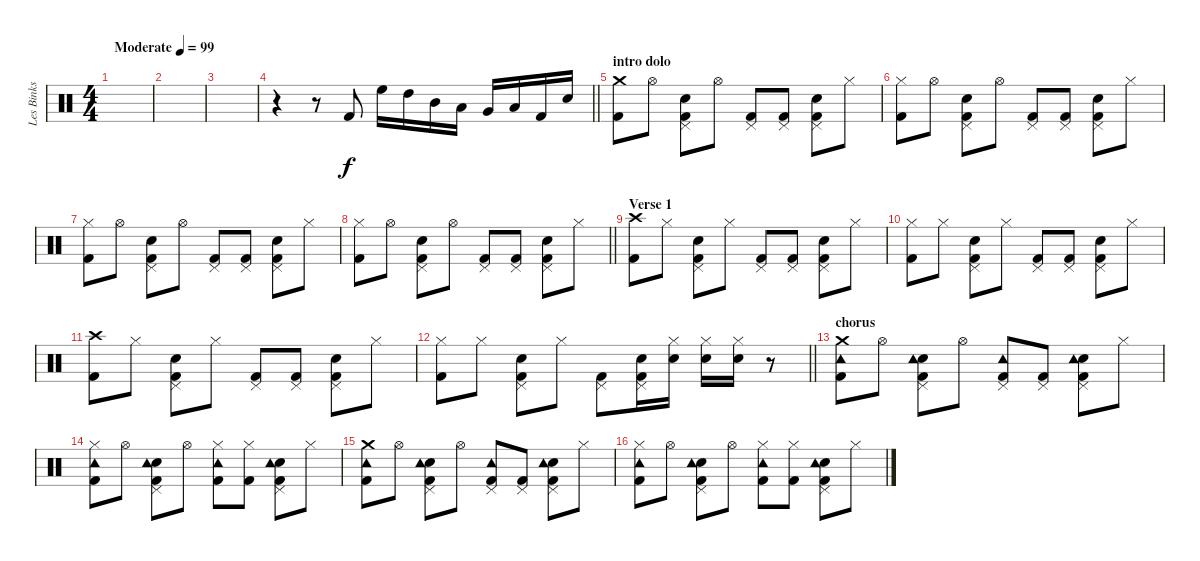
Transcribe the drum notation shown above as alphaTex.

\track ("Les Binks" "Les Binks") {instrument percussion}
\staff {score}
\articulation defaults
\ts (4 4)
\tempo (99 "Moderate")
\clef neutral
\ks c
|
|
|
\barLineRight lightlight
r.4 r.8 "Kick (hit) 2".8 "High Floor Tom (hit)".16 "High Tom (hit)".16 "Mid Tom (hit)".16 "Low Tom (hit)".16 "Very Low Tom (hit)".16 "Low Floor Tom (hit)".16 "Kick (hit) 2".16 "Snare (hit) 2".16 |
\section ("" "intro dolo")
("Crash medium (hit)" "Kick (hit) 2").8 "Hi-Hat (open)".8 ("Pedal Hi-Hat (hit)" "Snare (hit) 2" "Kick (hit) 2").8 "Hi-Hat (open)".8 ("Pedal Hi-Hat (hit)" "Kick (hit) 2").8 ("Pedal Hi-Hat (hit)" "Kick (hit) 2").8 ("Pedal Hi-Hat (hit)" "Snare (hit) 2" "Kick (hit) 2").8 "Hi-Hat (closed)".8 |
("Hi-Hat (closed)" "Kick (hit) 2").8 "Hi-Hat (open)".8 ("Pedal Hi-Hat (hit)" "Snare (hit) 2" "Kick (hit) 2").8 "Hi-Hat (open)".8 ("Pedal Hi-Hat (hit)" "Kick (hit) 2").8 ("Pedal Hi-Hat (hit)" "Kick (hit) 2").8 ("Pedal Hi-Hat (hit)" "Snare (hit) 2" "Kick (hit) 2").8 "Hi-Hat (closed)".8 |
("Hi-Hat (closed)" "Kick (hit) 2").8 "Hi-Hat (open)".8 ("Pedal Hi-Hat (hit)" "Snare (hit) 2" "Kick (hit) 2").8 "Hi-Hat (open)".8 ("Pedal Hi-Hat (hit)" "Kick (hit) 2").8 ("Pedal Hi-Hat (hit)" "Kick (hit) 2").8 ("Pedal Hi-Hat (hit)" "Snare (hit) 2" "Kick (hit) 2").8 "Hi-Hat (closed)".8 |
\barLineRight lightlight
("Hi-Hat (closed)" "Kick (hit) 2").8 "Hi-Hat (open)".8 ("Pedal Hi-Hat (hit)" "Snare (hit) 2" "Kick (hit) 2").8 "Hi-Hat (open)".8 ("Pedal Hi-Hat (hit)" "Kick (hit) 2").8 ("Pedal Hi-Hat (hit)" "Kick (hit) 2").8 ("Pedal Hi-Hat (hit)" "Snare (hit) 2" "Kick (hit) 2").8 "Hi-Hat (closed)".8 |
\section ("" "Verse 1")
("Crash high (hit)" "Kick (hit) 2").8 "Hi-Hat (closed)".8 ("Pedal Hi-Hat (hit)" "Snare (hit) 2" "Kick (hit) 2").8 "Hi-Hat (closed)".8 ("Pedal Hi-Hat (hit)" "Kick (hit) 2").8 ("Pedal Hi-Hat (hit)" "Kick (hit) 2").8 ("Pedal Hi-Hat (hit)" "Snare (hit) 2" "Kick (hit) 2").8 "Hi-Hat (closed)".8 |
("Hi-Hat (closed)" "Kick (hit) 2").8 "Hi-Hat (closed)".8 ("Pedal Hi-Hat (hit)" "Snare (hit) 2" "Kick (hit) 2").8 "Hi-Hat (closed)".8 ("Pedal Hi-Hat (hit)" "Kick (hit) 2").8 ("Pedal Hi-Hat (hit)" "Kick (hit) 2").8 ("Pedal Hi-Hat (hit)" "Snare (hit) 2" "Kick (hit) 2").8 "Hi-Hat (closed)".8 |
("Crash high (hit)" "Kick (hit) 2").8 "Hi-Hat (closed)".8 ("Pedal Hi-Hat (hit)" "Snare (hit) 2" "Kick (hit) 2").8 "Hi-Hat (closed)".8 ("Pedal Hi-Hat (hit)" "Kick (hit) 2").8 ("Pedal Hi-Hat (hit)" "Kick (hit) 2").8 ("Pedal Hi-Hat (hit)" "Snare (hit) 2" "Kick (hit) 2").8 "Hi-Hat (closed)".8 |
\barLineRight lightlight
("Hi-Hat (closed)" "Kick (hit) 2").8 "Hi-Hat (closed)".8 ("Pedal Hi-Hat (hit)" "Snare (hit) 2" "Kick (hit) 2").8 "Hi-Hat (closed)".8 ("Pedal Hi-Hat (hit)" "Kick (hit) 2").8 ("Pedal Hi-Hat (hit)" "Snare (hit) 2" "Kick (hit) 2").16 ("Hi-Hat (closed)" "Snare (hit) 2").16 ("Hi-Hat (closed)" "Snare (hit) 2").16 ("Hi-Hat (closed)" "Snare (hit) 2").16 r.8 |
\section ("" "chorus")
("Crash medium (hit)" "Tambourine (hit)" "Kick (hit) 2").8 "Hi-Hat (open)".8 ("Pedal Hi-Hat (hit)" "Electric Snare (hit)" "Tambourine (hit)" "Kick (hit) 2").8 "Hi-Hat (open)".8 ("Pedal Hi-Hat (hit)" "Tambourine (hit)" "Kick (hit) 2").8 ("Pedal Hi-Hat (hit)" "Kick (hit) 2").8 ("Pedal Hi-Hat (hit)" "Electric Snare (hit)" "Tambourine (hit)" "Kick (hit) 2").8 "Hi-Hat (closed)".8 |
("Hi-Hat (closed)" "Tambourine (hit)" "Kick (hit) 2").8 "Hi-Hat (open)".8 ("Pedal Hi-Hat (hit)" "Electric Snare (hit)" "Tambourine (hit)" "Kick (hit) 2").8 "Hi-Hat (open)".8 ("Hi-Hat (closed)" "Tambourine (hit)" "Kick (hit) 2").8 ("Hi-Hat (closed)" "Kick (hit) 2").8 ("Pedal Hi-Hat (hit)" "Electric Snare (hit)" "Tambourine (hit)" "Kick (hit) 2").8 "Hi-Hat (closed)".8 |
("Crash medium (hit)" "Tambourine (hit)" "Kick (hit) 2").8 "Hi-Hat (open)".8 ("Pedal Hi-Hat (hit)" "Electric Snare (hit)" "Tambourine (hit)" "Kick (hit) 2").8 "Hi-Hat (open)".8 ("Pedal Hi-Hat (hit)" "Tambourine (hit)" "Kick (hit) 2").8 ("Pedal Hi-Hat (hit)" "Kick (hit) 2").8 ("Pedal Hi-Hat (hit)" "Electric Snare (hit)" "Tambourine (hit)" "Kick (hit) 2").8 "Hi-Hat (closed)".8 |
("Hi-Hat (closed)" "Tambourine (hit)" "Kick (hit) 2").8 "Hi-Hat (open)".8 ("Pedal Hi-Hat (hit)" "Electric Snare (hit)" "Tambourine (hit)" "Kick (hit) 2").8 "Hi-Hat (open)".8 ("Hi-Hat (closed)" "Tambourine (hit)" "Kick (hit) 2").8 ("Hi-Hat (closed)" "Kick (hit) 2").8 ("Pedal Hi-Hat (hit)" "Electric Snare (hit)" "Tambourine (hit)" "Kick (hit) 2").8 "Hi-Hat (closed)".8
